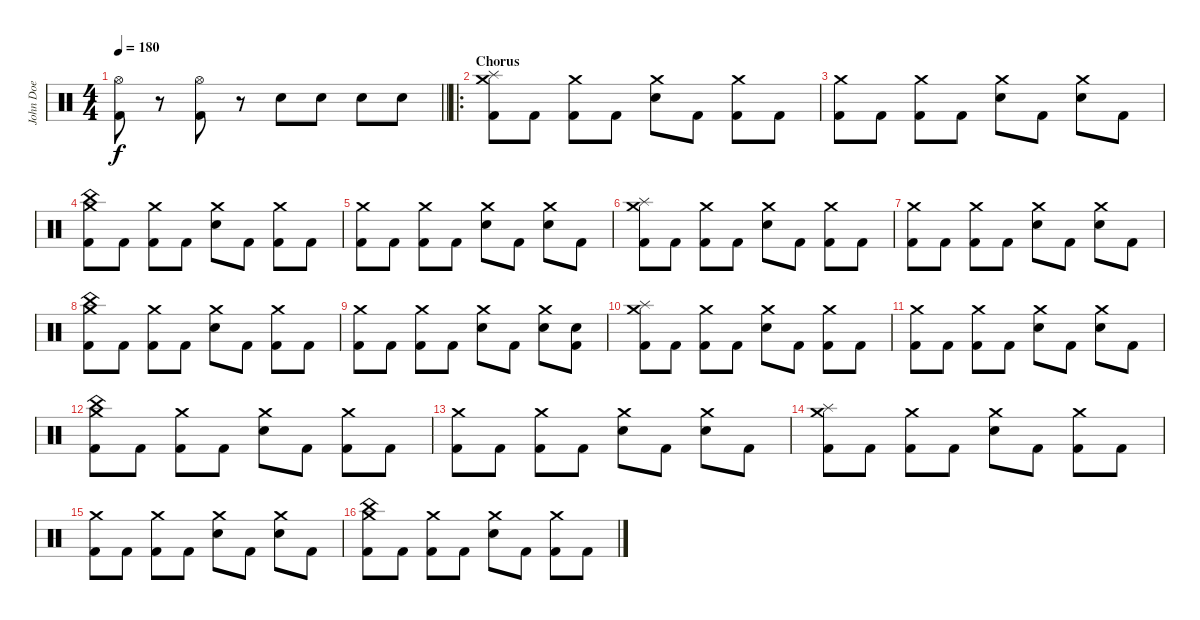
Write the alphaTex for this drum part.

\track ("John Doe" "John Doe") {instrument percussion}
\staff {score}
\articulation defaults
\ts (4 4)
\tempo 180
\clef neutral
\barLineRight lightlight
\ks c
("Hi-Hat (open)" "Kick (hit) 2").8{dy f} r.8 ("Hi-Hat (open)" "Kick (hit) 2").8 r.8 "Electric Snare (hit)".8 "Electric Snare (hit)".8 "Electric Snare (hit)".8 "Electric Snare (hit)".8 |
\ro
\section ("" "Chorus")
("Splash (hit)" "Crash medium (hit)" "Kick (hit) 2").8 "Kick (hit) 2".8 ("Crash medium (hit)" "Kick (hit) 2").8 "Kick (hit) 2".8 ("Crash medium (hit)" "Electric Snare (hit)").8 "Kick (hit) 2".8 ("Crash medium (hit)" "Kick (hit) 2").8 "Kick (hit) 2".8 |
("Crash medium (hit)" "Kick (hit) 2").8 "Kick (hit) 2".8 ("Crash medium (hit)" "Kick (hit) 2").8 "Kick (hit) 2".8 ("Crash medium (hit)" "Electric Snare (hit)").8 "Kick (hit) 2".8 ("Crash medium (hit)" "Electric Snare (hit)").8 "Kick (hit) 2".8 |
("China (hit)" "Crash medium (hit)" "Kick (hit) 2").8 "Kick (hit) 2".8 ("Crash medium (hit)" "Kick (hit) 2").8 "Kick (hit) 2".8 ("Crash medium (hit)" "Electric Snare (hit)").8 "Kick (hit) 2".8 ("Crash medium (hit)" "Kick (hit) 2").8 "Kick (hit) 2".8 |
("Crash medium (hit)" "Kick (hit) 2").8 "Kick (hit) 2".8 ("Crash medium (hit)" "Kick (hit) 2").8 "Kick (hit) 2".8 ("Crash medium (hit)" "Electric Snare (hit)").8 "Kick (hit) 2".8 ("Crash medium (hit)" "Electric Snare (hit)").8 "Kick (hit) 2".8 |
("Splash (hit)" "Crash medium (hit)" "Kick (hit) 2").8 "Kick (hit) 2".8 ("Crash medium (hit)" "Kick (hit) 2").8 "Kick (hit) 2".8 ("Crash medium (hit)" "Electric Snare (hit)").8 "Kick (hit) 2".8 ("Crash medium (hit)" "Kick (hit) 2").8 "Kick (hit) 2".8 |
("Crash medium (hit)" "Kick (hit) 2").8 "Kick (hit) 2".8 ("Crash medium (hit)" "Kick (hit) 2").8 "Kick (hit) 2".8 ("Crash medium (hit)" "Electric Snare (hit)").8 "Kick (hit) 2".8 ("Crash medium (hit)" "Electric Snare (hit)").8 "Kick (hit) 2".8 |
("China (hit)" "Crash medium (hit)" "Kick (hit) 2").8 "Kick (hit) 2".8 ("Crash medium (hit)" "Kick (hit) 2").8 "Kick (hit) 2".8 ("Crash medium (hit)" "Electric Snare (hit)").8 "Kick (hit) 2".8 ("Crash medium (hit)" "Kick (hit) 2").8 "Kick (hit) 2".8 |
("Crash medium (hit)" "Kick (hit) 2").8 "Kick (hit) 2".8 ("Crash medium (hit)" "Kick (hit) 2").8 "Kick (hit) 2".8 ("Crash medium (hit)" "Electric Snare (hit)").8 "Kick (hit) 2".8 ("Crash medium (hit)" "Electric Snare (hit)").8 ("Electric Snare (hit)" "Kick (hit) 2").8 |
("Splash (hit)" "Crash medium (hit)" "Kick (hit) 2").8 "Kick (hit) 2".8 ("Crash medium (hit)" "Kick (hit) 2").8 "Kick (hit) 2".8 ("Crash medium (hit)" "Electric Snare (hit)").8 "Kick (hit) 2".8 ("Crash medium (hit)" "Kick (hit) 2").8 "Kick (hit) 2".8 |
("Crash medium (hit)" "Kick (hit) 2").8 "Kick (hit) 2".8 ("Crash medium (hit)" "Kick (hit) 2").8 "Kick (hit) 2".8 ("Crash medium (hit)" "Electric Snare (hit)").8 "Kick (hit) 2".8 ("Crash medium (hit)" "Electric Snare (hit)").8 "Kick (hit) 2".8 |
("China (hit)" "Crash medium (hit)" "Kick (hit) 2").8 "Kick (hit) 2".8 ("Crash medium (hit)" "Kick (hit) 2").8 "Kick (hit) 2".8 ("Crash medium (hit)" "Electric Snare (hit)").8 "Kick (hit) 2".8 ("Crash medium (hit)" "Kick (hit) 2").8 "Kick (hit) 2".8 |
("Crash medium (hit)" "Kick (hit) 2").8 "Kick (hit) 2".8 ("Crash medium (hit)" "Kick (hit) 2").8 "Kick (hit) 2".8 ("Crash medium (hit)" "Electric Snare (hit)").8 "Kick (hit) 2".8 ("Crash medium (hit)" "Electric Snare (hit)").8 "Kick (hit) 2".8 |
("Splash (hit)" "Crash medium (hit)" "Kick (hit) 2").8 "Kick (hit) 2".8 ("Crash medium (hit)" "Kick (hit) 2").8 "Kick (hit) 2".8 ("Crash medium (hit)" "Electric Snare (hit)").8 "Kick (hit) 2".8 ("Crash medium (hit)" "Kick (hit) 2").8 "Kick (hit) 2".8 |
("Crash medium (hit)" "Kick (hit) 2").8 "Kick (hit) 2".8 ("Crash medium (hit)" "Kick (hit) 2").8 "Kick (hit) 2".8 ("Crash medium (hit)" "Electric Snare (hit)").8 "Kick (hit) 2".8 ("Crash medium (hit)" "Electric Snare (hit)").8 "Kick (hit) 2".8 |
("China (hit)" "Crash medium (hit)" "Kick (hit) 2").8 "Kick (hit) 2".8 ("Crash medium (hit)" "Kick (hit) 2").8 "Kick (hit) 2".8 ("Crash medium (hit)" "Electric Snare (hit)").8 "Kick (hit) 2".8 ("Crash medium (hit)" "Kick (hit) 2").8 "Kick (hit) 2".8
